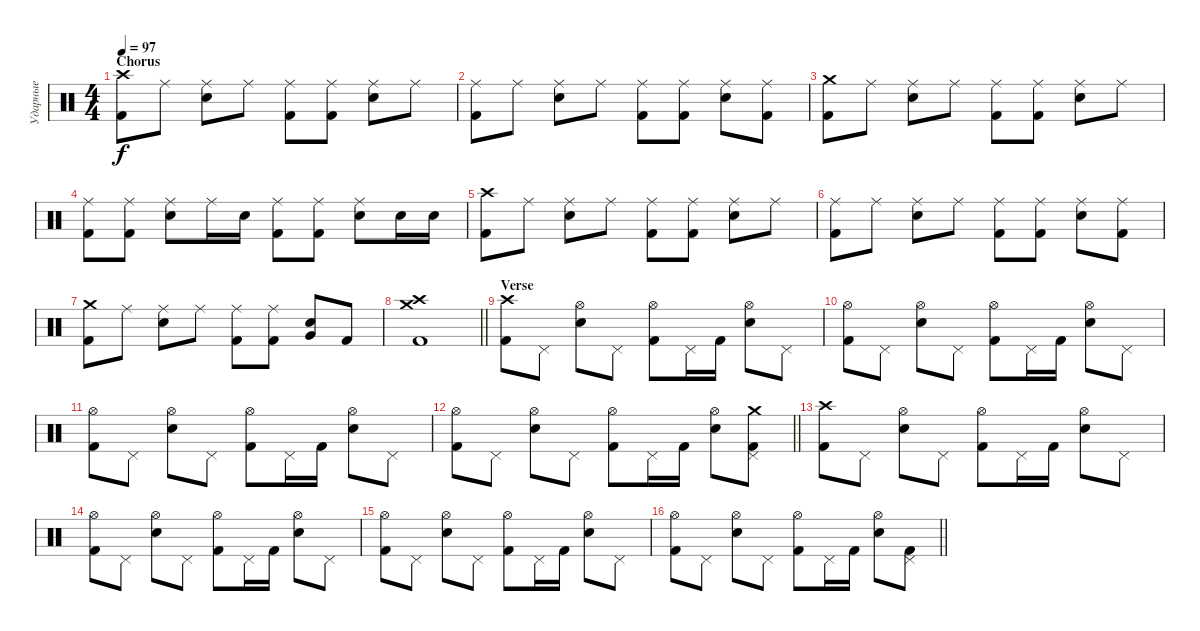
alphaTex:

\track ("Ударные" "Ударные") {instrument percussion}
\staff {score}
\articulation defaults
\ts (4 4)
\section ("" "Сhorus")
\tempo 97
\clef neutral
\ks c
("Crash high (hit)" "Kick (hit) 2").8{dy f} "Ride (middle)".8 ("Ride (middle)" "Electric Snare (hit)").8 "Ride (middle)".8 ("Ride (middle)" "Kick (hit) 2").8 ("Ride (middle)" "Kick (hit) 2").8 ("Ride (middle)" "Electric Snare (hit)").8 "Ride (middle)".8 |
("Ride (middle)" "Kick (hit) 2").8 "Ride (middle)".8 ("Ride (middle)" "Electric Snare (hit)").8 "Ride (middle)".8 ("Ride (middle)" "Kick (hit) 2").8 ("Ride (middle)" "Kick (hit) 2").8 ("Ride (middle)" "Electric Snare (hit)").8 ("Ride (middle)" "Kick (hit) 2").8 |
("Crash medium (hit)" "Kick (hit) 2").8 "Ride (middle)".8 ("Ride (middle)" "Electric Snare (hit)").8 "Ride (middle)".8 ("Ride (middle)" "Kick (hit) 2").8 ("Ride (middle)" "Kick (hit) 2").8 ("Ride (middle)" "Electric Snare (hit)").8 "Ride (middle)".8 |
("Ride (middle)" "Kick (hit) 2").8 ("Ride (middle)" "Kick (hit) 2").8 ("Ride (middle)" "Electric Snare (hit)").8 "Ride (middle)".16 "Electric Snare (hit)".16 ("Ride (middle)" "Kick (hit) 2").8 ("Ride (middle)" "Kick (hit) 2").8 ("Ride (middle)" "Electric Snare (hit)").8 "Electric Snare (hit)".16 "Electric Snare (hit)".16 |
("Crash high (hit)" "Kick (hit) 2").8 "Ride (middle)".8 ("Ride (middle)" "Electric Snare (hit)").8 "Ride (middle)".8 ("Ride (middle)" "Kick (hit) 2").8 ("Ride (middle)" "Kick (hit) 2").8 ("Ride (middle)" "Electric Snare (hit)").8 "Ride (middle)".8 |
("Ride (middle)" "Kick (hit) 2").8 "Ride (middle)".8 ("Ride (middle)" "Electric Snare (hit)").8 "Ride (middle)".8 ("Ride (middle)" "Kick (hit) 2").8 ("Ride (middle)" "Kick (hit) 2").8 ("Ride (middle)" "Electric Snare (hit)").8 ("Ride (middle)" "Kick (hit) 2").8 |
("Crash medium (hit)" "Kick (hit) 2").8 "Ride (middle)".8 ("Ride (middle)" "Electric Snare (hit)").8 "Ride (middle)".8 ("Ride (middle)" "Kick (hit) 2").8 ("Ride (middle)" "Kick (hit) 2").8 ("Electric Snare (hit)" "Very Low Tom (hit)").8 "Kick (hit) 2".8 |
\barLineRight lightlight
("Crash high (hit)" "Crash medium (hit)" "Kick (hit) 2").1 |
\section ("" "Verse")
("Crash high (hit)" "Kick (hit) 2").8 "Pedal Hi-Hat (hit)".8 ("Hi-Hat (open)" "Electric Snare (hit)").8 "Pedal Hi-Hat (hit)".8 ("Hi-Hat (open)" "Kick (hit) 2").8 "Pedal Hi-Hat (hit)".16 "Kick (hit) 2".16 ("Hi-Hat (open)" "Electric Snare (hit)").8 "Pedal Hi-Hat (hit)".8 |
("Hi-Hat (open)" "Kick (hit) 2").8 "Pedal Hi-Hat (hit)".8 ("Hi-Hat (open)" "Electric Snare (hit)").8 "Pedal Hi-Hat (hit)".8 ("Hi-Hat (open)" "Kick (hit) 2").8 "Pedal Hi-Hat (hit)".16 "Kick (hit) 2".16 ("Hi-Hat (open)" "Electric Snare (hit)").8 "Pedal Hi-Hat (hit)".8 |
("Hi-Hat (open)" "Kick (hit) 2").8 "Pedal Hi-Hat (hit)".8 ("Hi-Hat (open)" "Electric Snare (hit)").8 "Pedal Hi-Hat (hit)".8 ("Hi-Hat (open)" "Kick (hit) 2").8 "Pedal Hi-Hat (hit)".16 "Kick (hit) 2".16 ("Hi-Hat (open)" "Electric Snare (hit)").8 "Pedal Hi-Hat (hit)".8 |
\barLineRight lightlight
("Hi-Hat (open)" "Kick (hit) 2").8 "Pedal Hi-Hat (hit)".8 ("Hi-Hat (open)" "Electric Snare (hit)").8 "Pedal Hi-Hat (hit)".8 ("Hi-Hat (open)" "Kick (hit) 2").8 "Pedal Hi-Hat (hit)".16 "Kick (hit) 2".16 ("Hi-Hat (open)" "Electric Snare (hit)").8 ("Crash medium (hit)" "Pedal Hi-Hat (hit)" "Kick (hit) 2").8 |
("Crash high (hit)" "Kick (hit) 2").8 "Pedal Hi-Hat (hit)".8 ("Hi-Hat (open)" "Electric Snare (hit)").8 "Pedal Hi-Hat (hit)".8 ("Hi-Hat (open)" "Kick (hit) 2").8 "Pedal Hi-Hat (hit)".16 "Kick (hit) 2".16 ("Hi-Hat (open)" "Electric Snare (hit)").8 "Pedal Hi-Hat (hit)".8 |
("Hi-Hat (open)" "Kick (hit) 2").8 "Pedal Hi-Hat (hit)".8 ("Hi-Hat (open)" "Electric Snare (hit)").8 "Pedal Hi-Hat (hit)".8 ("Hi-Hat (open)" "Kick (hit) 2").8 "Pedal Hi-Hat (hit)".16 "Kick (hit) 2".16 ("Hi-Hat (open)" "Electric Snare (hit)").8 "Pedal Hi-Hat (hit)".8 |
("Hi-Hat (open)" "Kick (hit) 2").8 "Pedal Hi-Hat (hit)".8 ("Hi-Hat (open)" "Electric Snare (hit)").8 "Pedal Hi-Hat (hit)".8 ("Hi-Hat (open)" "Kick (hit) 2").8 "Pedal Hi-Hat (hit)".16 "Kick (hit) 2".16 ("Hi-Hat (open)" "Electric Snare (hit)").8 "Pedal Hi-Hat (hit)".8 |
\barLineRight lightlight
("Hi-Hat (open)" "Kick (hit) 2").8 "Pedal Hi-Hat (hit)".8 ("Hi-Hat (open)" "Electric Snare (hit)").8 "Pedal Hi-Hat (hit)".8 ("Hi-Hat (open)" "Kick (hit) 2").8 "Pedal Hi-Hat (hit)".16 "Kick (hit) 2".16 ("Hi-Hat (open)" "Electric Snare (hit)").8 ("Pedal Hi-Hat (hit)" "Kick (hit) 2").8
